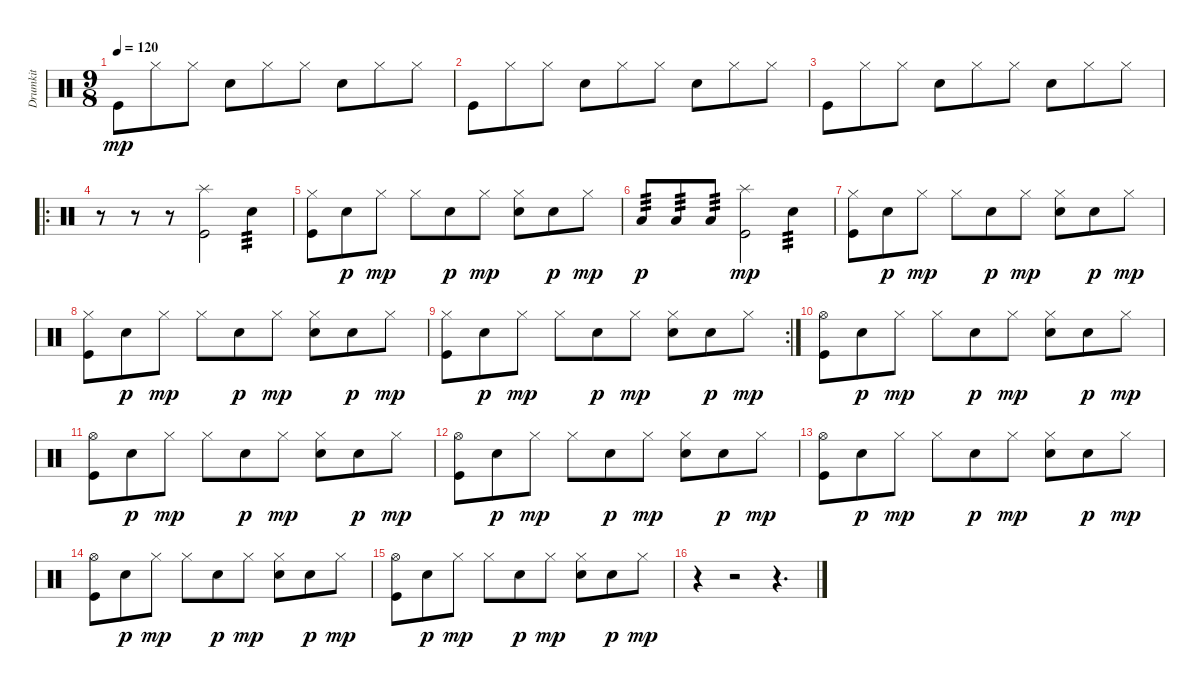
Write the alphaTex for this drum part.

\track ("Drumkit" "Drumkit") {instrument percussion}
\staff {score}
\articulation defaults
\ts (9 8)
\tempo 120
\clef neutral
\ks c "Kick (hit)".8{dy mp} "Hi-Hat (closed)".8 "Hi-Hat (closed)".8 "Snare (hit) 2".8 "Hi-Hat (closed)".8 "Hi-Hat (closed)".8 "Snare (hit) 2".8 "Hi-Hat (closed)".8 "Hi-Hat (closed)".8
|
"Kick (hit)".8 "Hi-Hat (closed)".8 "Hi-Hat (closed)".8 "Snare (hit) 2".8 "Hi-Hat (closed)".8 "Hi-Hat (closed)".8 "Snare (hit) 2".8 "Hi-Hat (closed)".8 "Hi-Hat (closed)".8 |
"Kick (hit)".8 "Hi-Hat (closed)".8 "Hi-Hat (closed)".8 "Snare (hit) 2".8 "Hi-Hat (closed)".8 "Hi-Hat (closed)".8 "Snare (hit) 2".8 "Hi-Hat (closed)".8 "Hi-Hat (closed)".8 |
\ro
r.8 r.8 r.8 ("Splash (hit)" "Kick (hit)").2 "Snare (hit) 2".4{tp 3} |
("Hi-Hat (closed)" "Kick (hit)").8 "Snare (hit) 2".8{dy p} "Hi-Hat (closed)".8{dy mp} "Hi-Hat (closed)".8 "Snare (hit) 2".8{dy p} "Hi-Hat (closed)".8{dy mp} ("Hi-Hat (closed)" "Snare (hit) 2").8 "Snare (hit) 2".8{dy p} "Hi-Hat (closed)".8{dy mp} |
"Low Tom (hit)".8{tp 3 dy p} "Low Tom (hit)".8{tp 3} "Low Tom (hit)".8{tp 3} ("Splash (hit)" "Kick (hit)").2{dy mp} "Snare (hit) 2".4{tp 3} |
("Hi-Hat (closed)" "Kick (hit)").8 "Snare (hit) 2".8{dy p} "Hi-Hat (closed)".8{dy mp} "Hi-Hat (closed)".8 "Snare (hit) 2".8{dy p} "Hi-Hat (closed)".8{dy mp} ("Hi-Hat (closed)" "Snare (hit) 2").8 "Snare (hit) 2".8{dy p} "Hi-Hat (closed)".8{dy mp} |
("Hi-Hat (closed)" "Kick (hit)").8 "Snare (hit) 2".8{dy p} "Hi-Hat (closed)".8{dy mp} "Hi-Hat (closed)".8 "Snare (hit) 2".8{dy p} "Hi-Hat (closed)".8{dy mp} ("Hi-Hat (closed)" "Snare (hit) 2").8 "Snare (hit) 2".8{dy p} "Hi-Hat (closed)".8{dy mp} |
\rc 2
("Hi-Hat (closed)" "Kick (hit)").8 "Snare (hit) 2".8{dy p} "Hi-Hat (closed)".8{dy mp} "Hi-Hat (closed)".8 "Snare (hit) 2".8{dy p} "Hi-Hat (closed)".8{dy mp} ("Hi-Hat (closed)" "Snare (hit) 2").8 "Snare (hit) 2".8{dy p} "Hi-Hat (closed)".8{dy mp} |
("Hi-Hat (open)" "Kick (hit)").8 "Snare (hit) 2".8{dy p} "Hi-Hat (closed)".8{dy mp} "Hi-Hat (closed)".8 "Snare (hit) 2".8{dy p} "Hi-Hat (closed)".8{dy mp} ("Hi-Hat (closed)" "Snare (hit) 2").8 "Snare (hit) 2".8{dy p} "Hi-Hat (closed)".8{dy mp} |
("Hi-Hat (open)" "Kick (hit)").8 "Snare (hit) 2".8{dy p} "Hi-Hat (closed)".8{dy mp} "Hi-Hat (closed)".8 "Snare (hit) 2".8{dy p} "Hi-Hat (closed)".8{dy mp} ("Hi-Hat (closed)" "Snare (hit) 2").8 "Snare (hit) 2".8{dy p} "Hi-Hat (closed)".8{dy mp} |
("Hi-Hat (open)" "Kick (hit)").8 "Snare (hit) 2".8{dy p} "Hi-Hat (closed)".8{dy mp} "Hi-Hat (closed)".8 "Snare (hit) 2".8{dy p} "Hi-Hat (closed)".8{dy mp} ("Hi-Hat (closed)" "Snare (hit) 2").8 "Snare (hit) 2".8{dy p} "Hi-Hat (closed)".8{dy mp} |
("Hi-Hat (open)" "Kick (hit)").8 "Snare (hit) 2".8{dy p} "Hi-Hat (closed)".8{dy mp} "Hi-Hat (closed)".8 "Snare (hit) 2".8{dy p} "Hi-Hat (closed)".8{dy mp} ("Hi-Hat (closed)" "Snare (hit) 2").8 "Snare (hit) 2".8{dy p} "Hi-Hat (closed)".8{dy mp} |
("Hi-Hat (open)" "Kick (hit)").8 "Snare (hit) 2".8{dy p} "Hi-Hat (closed)".8{dy mp} "Hi-Hat (closed)".8 "Snare (hit) 2".8{dy p} "Hi-Hat (closed)".8{dy mp} ("Hi-Hat (closed)" "Snare (hit) 2").8 "Snare (hit) 2".8{dy p} "Hi-Hat (closed)".8{dy mp} |
("Hi-Hat (open)" "Kick (hit)").8 "Snare (hit) 2".8{dy p} "Hi-Hat (closed)".8{dy mp} "Hi-Hat (closed)".8 "Snare (hit) 2".8{dy p} "Hi-Hat (closed)".8{dy mp} ("Hi-Hat (closed)" "Snare (hit) 2").8 "Snare (hit) 2".8{dy p} "Hi-Hat (closed)".8{dy mp} |
r.4 r.2 r.4{d}
